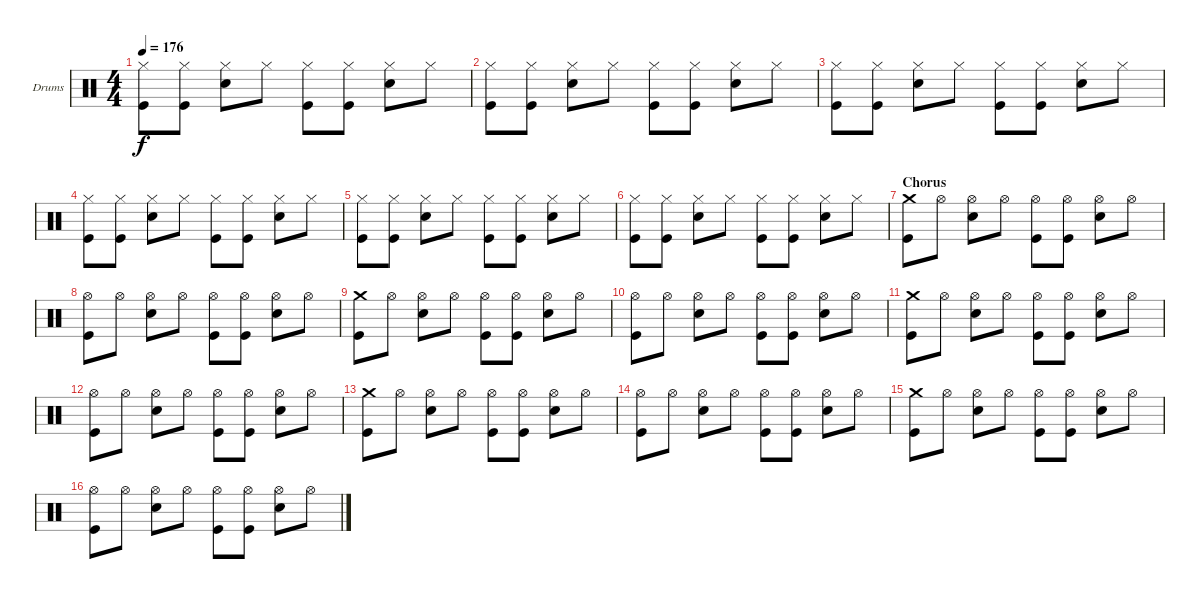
\defaultSystemsLayout 4
\bracketExtendMode groupsimilarinstruments
\firstSystemTrackNameOrientation horizontal
\otherSystemsTrackNameOrientation horizontal
\track ("Drumkit" "Drums") {instrument percussion}
\staff {score}
\articulation defaults
\ts (4 4)
\tempo 176
\clef neutral
\ks c
("Hi-Hat (closed)" "Kick (hit)").8{dy f} ("Hi-Hat (closed)" "Kick (hit)").8 ("Hi-Hat (closed)" "Snare (hit) 2").8 "Hi-Hat (closed)".8 ("Hi-Hat (closed)" "Kick (hit)").8 ("Hi-Hat (closed)" "Kick (hit)").8 ("Hi-Hat (closed)" "Snare (hit) 2").8 "Hi-Hat (closed)".8 |
("Hi-Hat (closed)" "Kick (hit)").8 ("Hi-Hat (closed)" "Kick (hit)").8 ("Hi-Hat (closed)" "Snare (hit) 2").8 "Hi-Hat (closed)".8 ("Hi-Hat (closed)" "Kick (hit)").8 ("Hi-Hat (closed)" "Kick (hit)").8 ("Hi-Hat (closed)" "Snare (hit) 2").8 "Hi-Hat (closed)".8 |
("Hi-Hat (closed)" "Kick (hit)").8 ("Hi-Hat (closed)" "Kick (hit)").8 ("Hi-Hat (closed)" "Snare (hit) 2").8 "Hi-Hat (closed)".8 ("Hi-Hat (closed)" "Kick (hit)").8 ("Hi-Hat (closed)" "Kick (hit)").8 ("Hi-Hat (closed)" "Snare (hit) 2").8 "Hi-Hat (closed)".8 |
("Hi-Hat (closed)" "Kick (hit)").8 ("Hi-Hat (closed)" "Kick (hit)").8 ("Hi-Hat (closed)" "Snare (hit) 2").8 "Hi-Hat (closed)".8 ("Hi-Hat (closed)" "Kick (hit)").8 ("Hi-Hat (closed)" "Kick (hit)").8 ("Hi-Hat (closed)" "Snare (hit) 2").8 "Hi-Hat (closed)".8 |
("Hi-Hat (closed)" "Kick (hit)").8 ("Hi-Hat (closed)" "Kick (hit)").8 ("Hi-Hat (closed)" "Snare (hit) 2").8 "Hi-Hat (closed)".8 ("Hi-Hat (closed)" "Kick (hit)").8 ("Hi-Hat (closed)" "Kick (hit)").8 ("Hi-Hat (closed)" "Snare (hit) 2").8 "Hi-Hat (closed)".8 |
("Hi-Hat (closed)" "Kick (hit)").8 ("Hi-Hat (closed)" "Kick (hit)").8 ("Hi-Hat (closed)" "Snare (hit) 2").8 "Hi-Hat (closed)".8 ("Hi-Hat (closed)" "Kick (hit)").8 ("Hi-Hat (closed)" "Kick (hit)").8 ("Hi-Hat (closed)" "Snare (hit) 2").8 "Hi-Hat (closed)".8 |
\section ("" "Chorus")
("Crash medium (hit)" "Kick (hit)").8 "Hi-Hat (open)".8 ("Hi-Hat (open)" "Snare (hit) 2").8 "Hi-Hat (open)".8 ("Hi-Hat (open)" "Kick (hit)").8 ("Hi-Hat (open)" "Kick (hit)").8 ("Hi-Hat (open)" "Snare (hit) 2").8 "Hi-Hat (open)".8 |
("Hi-Hat (open)" "Kick (hit)").8 "Hi-Hat (open)".8 ("Hi-Hat (open)" "Snare (hit) 2").8 "Hi-Hat (open)".8 ("Hi-Hat (open)" "Kick (hit)").8 ("Hi-Hat (open)" "Kick (hit)").8 ("Hi-Hat (open)" "Snare (hit) 2").8 "Hi-Hat (open)".8 |
("Crash medium (hit)" "Kick (hit)").8 "Hi-Hat (open)".8 ("Hi-Hat (open)" "Snare (hit) 2").8 "Hi-Hat (open)".8 ("Hi-Hat (open)" "Kick (hit)").8 ("Hi-Hat (open)" "Kick (hit)").8 ("Hi-Hat (open)" "Snare (hit) 2").8 "Hi-Hat (open)".8 |
("Hi-Hat (open)" "Kick (hit)").8 "Hi-Hat (open)".8 ("Hi-Hat (open)" "Snare (hit) 2").8 "Hi-Hat (open)".8 ("Hi-Hat (open)" "Kick (hit)").8 ("Hi-Hat (open)" "Kick (hit)").8 ("Hi-Hat (open)" "Snare (hit) 2").8 "Hi-Hat (open)".8 |
("Crash medium (hit)" "Kick (hit)").8 "Hi-Hat (open)".8 ("Hi-Hat (open)" "Snare (hit) 2").8 "Hi-Hat (open)".8 ("Hi-Hat (open)" "Kick (hit)").8 ("Hi-Hat (open)" "Kick (hit)").8 ("Hi-Hat (open)" "Snare (hit) 2").8 "Hi-Hat (open)".8 |
("Hi-Hat (open)" "Kick (hit)").8 "Hi-Hat (open)".8 ("Hi-Hat (open)" "Snare (hit) 2").8 "Hi-Hat (open)".8 ("Hi-Hat (open)" "Kick (hit)").8 ("Hi-Hat (open)" "Kick (hit)").8 ("Hi-Hat (open)" "Snare (hit) 2").8 "Hi-Hat (open)".8 |
("Crash medium (hit)" "Kick (hit)").8 "Hi-Hat (open)".8 ("Hi-Hat (open)" "Snare (hit) 2").8 "Hi-Hat (open)".8 ("Hi-Hat (open)" "Kick (hit)").8 ("Hi-Hat (open)" "Kick (hit)").8 ("Hi-Hat (open)" "Snare (hit) 2").8 "Hi-Hat (open)".8 |
("Hi-Hat (open)" "Kick (hit)").8 "Hi-Hat (open)".8 ("Hi-Hat (open)" "Snare (hit) 2").8 "Hi-Hat (open)".8 ("Hi-Hat (open)" "Kick (hit)").8 ("Hi-Hat (open)" "Kick (hit)").8 ("Hi-Hat (open)" "Snare (hit) 2").8 "Hi-Hat (open)".8 |
("Crash medium (hit)" "Kick (hit)").8 "Hi-Hat (open)".8 ("Hi-Hat (open)" "Snare (hit) 2").8 "Hi-Hat (open)".8 ("Hi-Hat (open)" "Kick (hit)").8 ("Hi-Hat (open)" "Kick (hit)").8 ("Hi-Hat (open)" "Snare (hit) 2").8 "Hi-Hat (open)".8 |
("Hi-Hat (open)" "Kick (hit)").8 "Hi-Hat (open)".8 ("Hi-Hat (open)" "Snare (hit) 2").8 "Hi-Hat (open)".8 ("Hi-Hat (open)" "Kick (hit)").8 ("Hi-Hat (open)" "Kick (hit)").8 ("Hi-Hat (open)" "Snare (hit) 2").8 "Hi-Hat (open)".8
